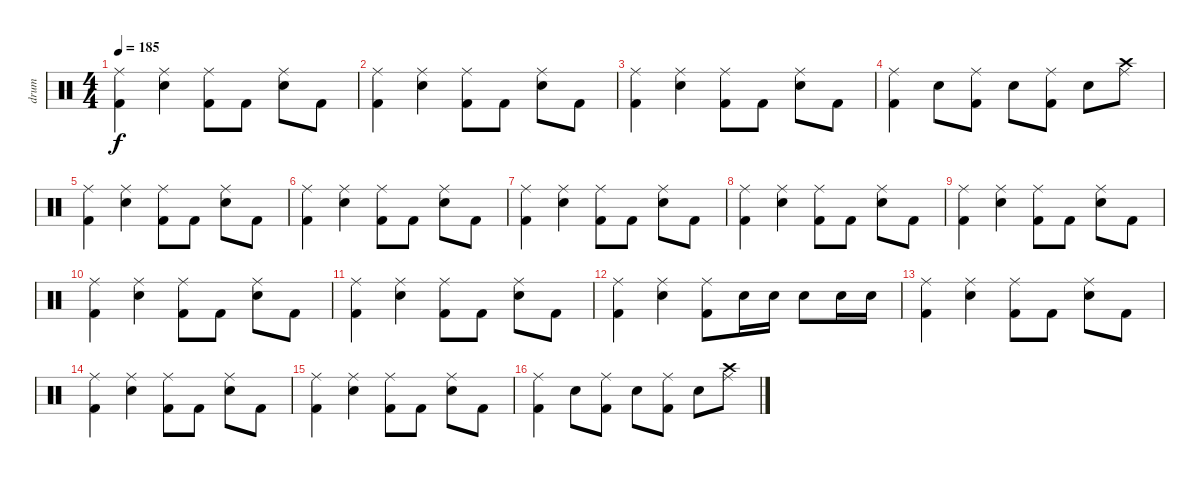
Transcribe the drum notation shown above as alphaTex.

\track ("drum" "drum") {instrument percussion}
\staff {score}
\articulation defaults
\ts (4 4)
\tempo 185
\clef neutral
\ks c
("Ride (middle)" "Kick (hit) 2").4{dy f} ("Ride (middle)" "Snare (hit) 2").4 ("Ride (middle)" "Kick (hit) 2").8 "Kick (hit) 2".8 ("Ride (middle)" "Snare (hit) 2").8 "Kick (hit) 2".8 |
("Ride (middle)" "Kick (hit) 2").4 ("Ride (middle)" "Snare (hit) 2").4 ("Ride (middle)" "Kick (hit) 2").8 "Kick (hit) 2".8 ("Ride (middle)" "Snare (hit) 2").8 "Kick (hit) 2".8 |
("Ride (middle)" "Kick (hit) 2").4 ("Ride (middle)" "Snare (hit) 2").4 ("Ride (middle)" "Kick (hit) 2").8 "Kick (hit) 2".8 ("Ride (middle)" "Snare (hit) 2").8 "Kick (hit) 2".8 |
("Ride (middle)" "Kick (hit) 2").4 "Snare (hit) 2".8 ("Ride (middle)" "Kick (hit) 2").8 "Snare (hit) 2".8 ("Ride (middle)" "Kick (hit) 2").8 "Snare (hit) 2".8 ("Ride (middle)" "Crash high (hit)").8 |
("Ride (middle)" "Kick (hit) 2").4 ("Ride (middle)" "Snare (hit) 2").4 ("Ride (middle)" "Kick (hit) 2").8 "Kick (hit) 2".8 ("Ride (middle)" "Snare (hit) 2").8 "Kick (hit) 2".8 |
("Ride (middle)" "Kick (hit) 2").4 ("Ride (middle)" "Snare (hit) 2").4 ("Ride (middle)" "Kick (hit) 2").8 "Kick (hit) 2".8 ("Ride (middle)" "Snare (hit) 2").8 "Kick (hit) 2".8 |
("Ride (middle)" "Kick (hit) 2").4 ("Ride (middle)" "Snare (hit) 2").4 ("Ride (middle)" "Kick (hit) 2").8 "Kick (hit) 2".8 ("Ride (middle)" "Snare (hit) 2").8 "Kick (hit) 2".8 |
("Ride (middle)" "Kick (hit) 2").4 ("Ride (middle)" "Snare (hit) 2").4 ("Ride (middle)" "Kick (hit) 2").8 "Kick (hit) 2".8 ("Ride (middle)" "Snare (hit) 2").8 "Kick (hit) 2".8 |
("Ride (middle)" "Kick (hit) 2").4 ("Ride (middle)" "Snare (hit) 2").4 ("Ride (middle)" "Kick (hit) 2").8 "Kick (hit) 2".8 ("Ride (middle)" "Snare (hit) 2").8 "Kick (hit) 2".8 |
("Ride (middle)" "Kick (hit) 2").4 ("Ride (middle)" "Snare (hit) 2").4 ("Ride (middle)" "Kick (hit) 2").8 "Kick (hit) 2".8 ("Ride (middle)" "Snare (hit) 2").8 "Kick (hit) 2".8 |
("Ride (middle)" "Kick (hit) 2").4 ("Ride (middle)" "Snare (hit) 2").4 ("Ride (middle)" "Kick (hit) 2").8 "Kick (hit) 2".8 ("Ride (middle)" "Snare (hit) 2").8 "Kick (hit) 2".8 |
("Ride (middle)" "Kick (hit) 2").4 ("Ride (middle)" "Snare (hit) 2").4 ("Ride (middle)" "Kick (hit) 2").8 "Snare (hit) 2".16 "Snare (hit) 2".16 "Snare (hit) 2".8 "Snare (hit) 2".16 "Snare (hit) 2".16 |
("Ride (middle)" "Kick (hit) 2").4 ("Ride (middle)" "Snare (hit) 2").4 ("Ride (middle)" "Kick (hit) 2").8 "Kick (hit) 2".8 ("Ride (middle)" "Snare (hit) 2").8 "Kick (hit) 2".8 |
("Ride (middle)" "Kick (hit) 2").4 ("Ride (middle)" "Snare (hit) 2").4 ("Ride (middle)" "Kick (hit) 2").8 "Kick (hit) 2".8 ("Ride (middle)" "Snare (hit) 2").8 "Kick (hit) 2".8 |
("Ride (middle)" "Kick (hit) 2").4 ("Ride (middle)" "Snare (hit) 2").4 ("Ride (middle)" "Kick (hit) 2").8 "Kick (hit) 2".8 ("Ride (middle)" "Snare (hit) 2").8 "Kick (hit) 2".8 |
("Ride (middle)" "Kick (hit) 2").4 "Snare (hit) 2".8 ("Ride (middle)" "Kick (hit) 2").8 "Snare (hit) 2".8 ("Ride (middle)" "Kick (hit) 2").8 "Snare (hit) 2".8 ("Ride (middle)" "Crash high (hit)").8
